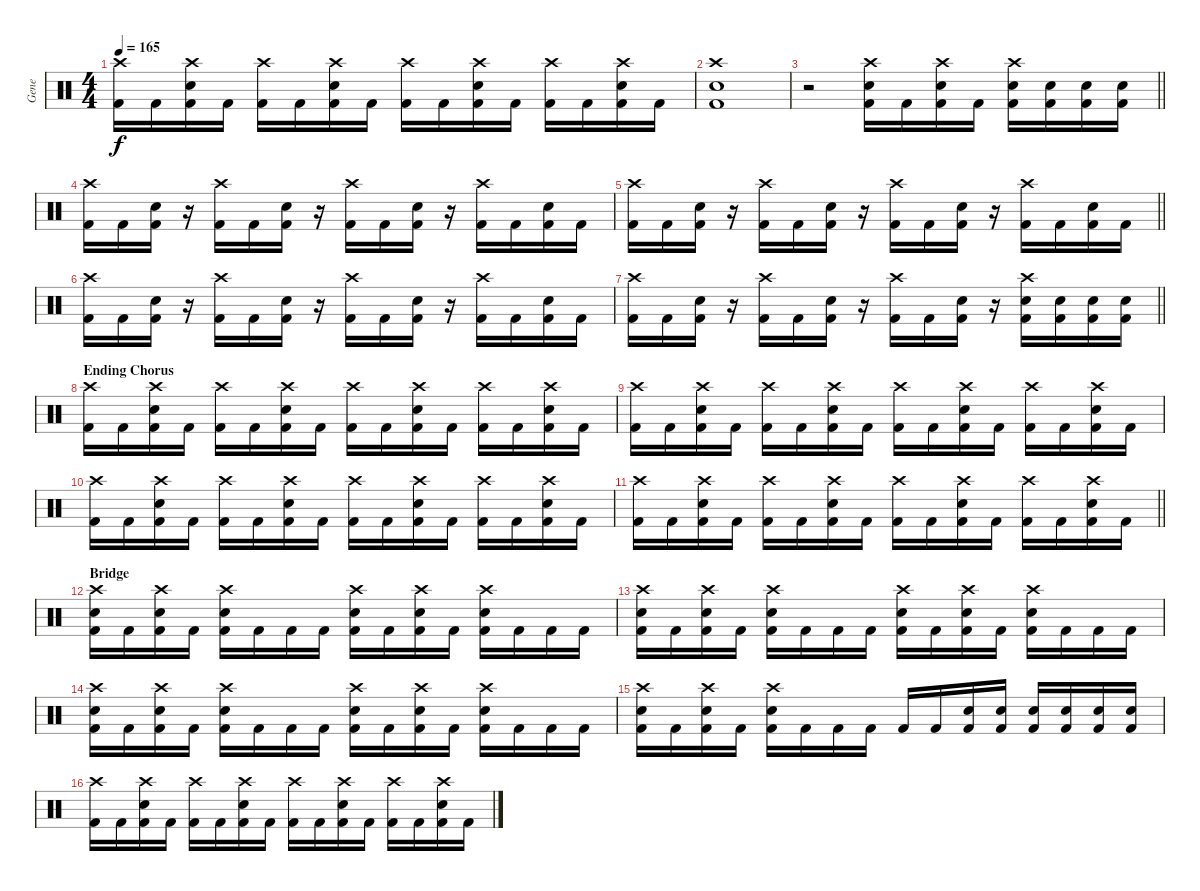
\track ("Gene" "Gene") {instrument percussion}
\staff {score}
\articulation defaults
\ts (4 4)
\tempo 165
\clef neutral
\ks c
("Crash high (hit)" "Kick (hit) 2").16{dy f} "Kick (hit) 2".16 ("Crash high (hit)" "Electric Snare (hit)" "Kick (hit) 2").16 "Kick (hit) 2".16 ("Crash high (hit)" "Kick (hit) 2").16 "Kick (hit) 2".16 ("Crash high (hit)" "Electric Snare (hit)" "Kick (hit) 2").16 "Kick (hit) 2".16 ("Crash high (hit)" "Kick (hit) 2").16 "Kick (hit) 2".16 ("Crash high (hit)" "Electric Snare (hit)" "Kick (hit) 2").16 "Kick (hit) 2".16 ("Crash high (hit)" "Kick (hit) 2").16 "Kick (hit) 2".16 ("Crash high (hit)" "Electric Snare (hit)" "Kick (hit) 2").16 "Kick (hit) 2".16 |
("Crash high (hit)" "Kick (hit) 2" "Electric Snare (hit)").1 |
\barLineRight lightlight
r.2 ("Crash high (hit)" "Electric Snare (hit)" "Kick (hit) 2").16 "Kick (hit) 2".16 ("Crash high (hit)" "Electric Snare (hit)" "Kick (hit) 2").16 "Kick (hit) 2".16 ("Crash high (hit)" "Electric Snare (hit)" "Kick (hit) 2").16 ("Electric Snare (hit)" "Kick (hit) 2").16 ("Electric Snare (hit)" "Kick (hit) 2").16 ("Electric Snare (hit)" "Kick (hit) 2").16 |
("Crash high (hit)" "Kick (hit) 2").16 "Kick (hit) 2".16 ("Electric Snare (hit)" "Kick (hit) 2").16 r.16 ("Crash high (hit)" "Kick (hit) 2").16 "Kick (hit) 2".16 ("Electric Snare (hit)" "Kick (hit) 2").16 r.16 ("Crash high (hit)" "Kick (hit) 2").16 "Kick (hit) 2".16 ("Electric Snare (hit)" "Kick (hit) 2").16 r.16 ("Crash high (hit)" "Kick (hit) 2").16 "Kick (hit) 2".16 ("Electric Snare (hit)" "Kick (hit) 2").16 "Kick (hit) 2".16 |
\barLineRight lightlight
("Crash high (hit)" "Kick (hit) 2").16 "Kick (hit) 2".16 ("Electric Snare (hit)" "Kick (hit) 2").16 r.16 ("Crash high (hit)" "Kick (hit) 2").16 "Kick (hit) 2".16 ("Electric Snare (hit)" "Kick (hit) 2").16 r.16 ("Crash high (hit)" "Kick (hit) 2").16 "Kick (hit) 2".16 ("Electric Snare (hit)" "Kick (hit) 2").16 r.16 ("Crash high (hit)" "Kick (hit) 2").16 "Kick (hit) 2".16 ("Electric Snare (hit)" "Kick (hit) 2").16 "Kick (hit) 2".16 |
("Crash high (hit)" "Kick (hit) 2").16 "Kick (hit) 2".16 ("Electric Snare (hit)" "Kick (hit) 2").16 r.16 ("Crash high (hit)" "Kick (hit) 2").16 "Kick (hit) 2".16 ("Electric Snare (hit)" "Kick (hit) 2").16 r.16 ("Crash high (hit)" "Kick (hit) 2").16 "Kick (hit) 2".16 ("Electric Snare (hit)" "Kick (hit) 2").16 r.16 ("Crash high (hit)" "Kick (hit) 2").16 "Kick (hit) 2".16 ("Electric Snare (hit)" "Kick (hit) 2").16 "Kick (hit) 2".16 |
\barLineRight lightlight
("Crash high (hit)" "Kick (hit) 2").16 "Kick (hit) 2".16 ("Electric Snare (hit)" "Kick (hit) 2").16 r.16 ("Crash high (hit)" "Kick (hit) 2").16 "Kick (hit) 2".16 ("Electric Snare (hit)" "Kick (hit) 2").16 r.16 ("Crash high (hit)" "Kick (hit) 2").16 "Kick (hit) 2".16 ("Electric Snare (hit)" "Kick (hit) 2").16 r.16 ("Crash high (hit)" "Electric Snare (hit)" "Kick (hit) 2").16 ("Electric Snare (hit)" "Kick (hit) 2").16 ("Electric Snare (hit)" "Kick (hit) 2").16 ("Electric Snare (hit)" "Kick (hit) 2").16 |
\section ("" "Ending Chorus")
("Crash high (hit)" "Kick (hit) 2").16 "Kick (hit) 2".16 ("Crash high (hit)" "Electric Snare (hit)" "Kick (hit) 2").16 "Kick (hit) 2".16 ("Crash high (hit)" "Kick (hit) 2").16 "Kick (hit) 2".16 ("Crash high (hit)" "Electric Snare (hit)" "Kick (hit) 2").16 "Kick (hit) 2".16 ("Crash high (hit)" "Kick (hit) 2").16 "Kick (hit) 2".16 ("Crash high (hit)" "Electric Snare (hit)" "Kick (hit) 2").16 "Kick (hit) 2".16 ("Crash high (hit)" "Kick (hit) 2").16 "Kick (hit) 2".16 ("Crash high (hit)" "Electric Snare (hit)" "Kick (hit) 2").16 "Kick (hit) 2".16 |
("Crash high (hit)" "Kick (hit) 2").16 "Kick (hit) 2".16 ("Crash high (hit)" "Electric Snare (hit)" "Kick (hit) 2").16 "Kick (hit) 2".16 ("Crash high (hit)" "Kick (hit) 2").16 "Kick (hit) 2".16 ("Crash high (hit)" "Electric Snare (hit)" "Kick (hit) 2").16 "Kick (hit) 2".16 ("Crash high (hit)" "Kick (hit) 2").16 "Kick (hit) 2".16 ("Crash high (hit)" "Electric Snare (hit)" "Kick (hit) 2").16 "Kick (hit) 2".16 ("Crash high (hit)" "Kick (hit) 2").16 "Kick (hit) 2".16 ("Crash high (hit)" "Electric Snare (hit)" "Kick (hit) 2").16 "Kick (hit) 2".16 |
("Crash high (hit)" "Kick (hit) 2").16 "Kick (hit) 2".16 ("Crash high (hit)" "Electric Snare (hit)" "Kick (hit) 2").16 "Kick (hit) 2".16 ("Crash high (hit)" "Kick (hit) 2").16 "Kick (hit) 2".16 ("Crash high (hit)" "Electric Snare (hit)" "Kick (hit) 2").16 "Kick (hit) 2".16 ("Crash high (hit)" "Kick (hit) 2").16 "Kick (hit) 2".16 ("Crash high (hit)" "Electric Snare (hit)" "Kick (hit) 2").16 "Kick (hit) 2".16 ("Crash high (hit)" "Kick (hit) 2").16 "Kick (hit) 2".16 ("Crash high (hit)" "Electric Snare (hit)" "Kick (hit) 2").16 "Kick (hit) 2".16 |
\barLineRight lightlight
("Crash high (hit)" "Kick (hit) 2").16 "Kick (hit) 2".16 ("Crash high (hit)" "Electric Snare (hit)" "Kick (hit) 2").16 "Kick (hit) 2".16 ("Crash high (hit)" "Kick (hit) 2").16 "Kick (hit) 2".16 ("Crash high (hit)" "Electric Snare (hit)" "Kick (hit) 2").16 "Kick (hit) 2".16 ("Crash high (hit)" "Kick (hit) 2").16 "Kick (hit) 2".16 ("Crash high (hit)" "Electric Snare (hit)" "Kick (hit) 2").16 "Kick (hit) 2".16 ("Crash high (hit)" "Kick (hit) 2").16 "Kick (hit) 2".16 ("Crash high (hit)" "Electric Snare (hit)" "Kick (hit) 2").16 "Kick (hit) 2".16 |
\section ("" "Bridge")
("Electric Snare (hit)" "Crash high (hit)" "Kick (hit) 2").16 "Kick (hit) 2".16 ("Electric Snare (hit)" "Crash high (hit)" "Kick (hit) 2").16 "Kick (hit) 2".16 ("Electric Snare (hit)" "Crash high (hit)" "Kick (hit) 2").16 "Kick (hit) 2".16 "Kick (hit) 2".16 "Kick (hit) 2".16 ("Electric Snare (hit)" "Crash high (hit)" "Kick (hit) 2").16 "Kick (hit) 2".16 ("Electric Snare (hit)" "Crash high (hit)" "Kick (hit) 2").16 "Kick (hit) 2".16 ("Electric Snare (hit)" "Crash high (hit)" "Kick (hit) 2").16 "Kick (hit) 2".16 "Kick (hit) 2".16 "Kick (hit) 2".16 |
("Electric Snare (hit)" "Crash high (hit)" "Kick (hit) 2").16 "Kick (hit) 2".16 ("Electric Snare (hit)" "Crash high (hit)" "Kick (hit) 2").16 "Kick (hit) 2".16 ("Electric Snare (hit)" "Crash high (hit)" "Kick (hit) 2").16 "Kick (hit) 2".16 "Kick (hit) 2".16 "Kick (hit) 2".16 ("Electric Snare (hit)" "Crash high (hit)" "Kick (hit) 2").16 "Kick (hit) 2".16 ("Electric Snare (hit)" "Crash high (hit)" "Kick (hit) 2").16 "Kick (hit) 2".16 ("Electric Snare (hit)" "Crash high (hit)" "Kick (hit) 2").16 "Kick (hit) 2".16 "Kick (hit) 2".16 "Kick (hit) 2".16 |
("Electric Snare (hit)" "Crash high (hit)" "Kick (hit) 2").16 "Kick (hit) 2".16 ("Electric Snare (hit)" "Crash high (hit)" "Kick (hit) 2").16 "Kick (hit) 2".16 ("Electric Snare (hit)" "Crash high (hit)" "Kick (hit) 2").16 "Kick (hit) 2".16 "Kick (hit) 2".16 "Kick (hit) 2".16 ("Electric Snare (hit)" "Crash high (hit)" "Kick (hit) 2").16 "Kick (hit) 2".16 ("Electric Snare (hit)" "Crash high (hit)" "Kick (hit) 2").16 "Kick (hit) 2".16 ("Electric Snare (hit)" "Crash high (hit)" "Kick (hit) 2").16 "Kick (hit) 2".16 "Kick (hit) 2".16 "Kick (hit) 2".16 |
("Electric Snare (hit)" "Crash high (hit)" "Kick (hit) 2").16 "Kick (hit) 2".16 ("Electric Snare (hit)" "Crash high (hit)" "Kick (hit) 2").16 "Kick (hit) 2".16 ("Electric Snare (hit)" "Crash high (hit)" "Kick (hit) 2").16 "Kick (hit) 2".16 "Kick (hit) 2".16 "Kick (hit) 2".16 "Kick (hit) 2".16 "Kick (hit) 2".16 ("Electric Snare (hit)" "Kick (hit) 2").16 ("Electric Snare (hit)" "Kick (hit) 2").16 ("Electric Snare (hit)" "Kick (hit) 2").16 ("Electric Snare (hit)" "Kick (hit) 2").16 ("Electric Snare (hit)" "Kick (hit) 2").16 ("Electric Snare (hit)" "Kick (hit) 2").16 |
("Crash high (hit)" "Kick (hit) 2").16 "Kick (hit) 2".16 ("Crash high (hit)" "Electric Snare (hit)" "Kick (hit) 2").16 "Kick (hit) 2".16 ("Crash high (hit)" "Kick (hit) 2").16 "Kick (hit) 2".16 ("Crash high (hit)" "Electric Snare (hit)" "Kick (hit) 2").16 "Kick (hit) 2".16 ("Crash high (hit)" "Kick (hit) 2").16 "Kick (hit) 2".16 ("Crash high (hit)" "Electric Snare (hit)" "Kick (hit) 2").16 "Kick (hit) 2".16 ("Crash high (hit)" "Kick (hit) 2").16 "Kick (hit) 2".16 ("Crash high (hit)" "Electric Snare (hit)" "Kick (hit) 2").16 "Kick (hit) 2".16
